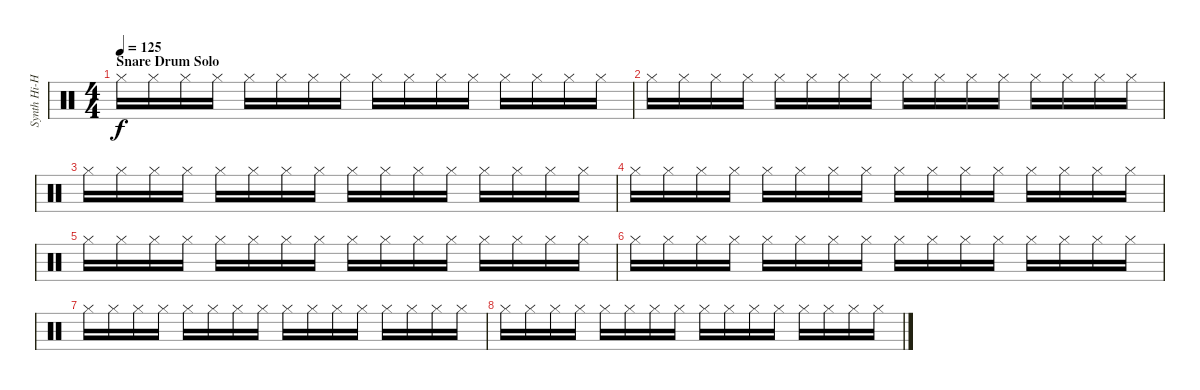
\track ("Synth Hi-Hat (Gillian)" "Synth Hi-H") {instrument percussion}
\staff {score}
\articulation defaults
\ts (4 4)
\section ("" "Snare Drum Solo")
\tempo 125
\clef neutral
\ks c "Hi-Hat (closed)".16{dy f} "Hi-Hat (closed)".16 "Hi-Hat (closed)".16 "Hi-Hat (closed)".16 "Hi-Hat (closed)".16 "Hi-Hat (closed)".16 "Hi-Hat (closed)".16 "Hi-Hat (closed)".16 "Hi-Hat (closed)".16 "Hi-Hat (closed)".16 "Hi-Hat (closed)".16 "Hi-Hat (closed)".16 "Hi-Hat (closed)".16 "Hi-Hat (closed)".16 "Hi-Hat (closed)".16 "Hi-Hat (closed)".16
|
"Hi-Hat (closed)".16 "Hi-Hat (closed)".16 "Hi-Hat (closed)".16 "Hi-Hat (closed)".16 "Hi-Hat (closed)".16 "Hi-Hat (closed)".16 "Hi-Hat (closed)".16 "Hi-Hat (closed)".16 "Hi-Hat (closed)".16 "Hi-Hat (closed)".16 "Hi-Hat (closed)".16 "Hi-Hat (closed)".16 "Hi-Hat (closed)".16 "Hi-Hat (closed)".16 "Hi-Hat (closed)".16 "Hi-Hat (closed)".16 |
"Hi-Hat (closed)".16 "Hi-Hat (closed)".16 "Hi-Hat (closed)".16 "Hi-Hat (closed)".16 "Hi-Hat (closed)".16 "Hi-Hat (closed)".16 "Hi-Hat (closed)".16 "Hi-Hat (closed)".16 "Hi-Hat (closed)".16 "Hi-Hat (closed)".16 "Hi-Hat (closed)".16 "Hi-Hat (closed)".16 "Hi-Hat (closed)".16 "Hi-Hat (closed)".16 "Hi-Hat (closed)".16 "Hi-Hat (closed)".16 |
"Hi-Hat (closed)".16 "Hi-Hat (closed)".16 "Hi-Hat (closed)".16 "Hi-Hat (closed)".16 "Hi-Hat (closed)".16 "Hi-Hat (closed)".16 "Hi-Hat (closed)".16 "Hi-Hat (closed)".16 "Hi-Hat (closed)".16 "Hi-Hat (closed)".16 "Hi-Hat (closed)".16 "Hi-Hat (closed)".16 "Hi-Hat (closed)".16 "Hi-Hat (closed)".16 "Hi-Hat (closed)".16 "Hi-Hat (closed)".16 |
"Hi-Hat (closed)".16 "Hi-Hat (closed)".16 "Hi-Hat (closed)".16 "Hi-Hat (closed)".16 "Hi-Hat (closed)".16 "Hi-Hat (closed)".16 "Hi-Hat (closed)".16 "Hi-Hat (closed)".16 "Hi-Hat (closed)".16 "Hi-Hat (closed)".16 "Hi-Hat (closed)".16 "Hi-Hat (closed)".16 "Hi-Hat (closed)".16 "Hi-Hat (closed)".16 "Hi-Hat (closed)".16 "Hi-Hat (closed)".16 |
"Hi-Hat (closed)".16 "Hi-Hat (closed)".16 "Hi-Hat (closed)".16 "Hi-Hat (closed)".16 "Hi-Hat (closed)".16 "Hi-Hat (closed)".16 "Hi-Hat (closed)".16 "Hi-Hat (closed)".16 "Hi-Hat (closed)".16 "Hi-Hat (closed)".16 "Hi-Hat (closed)".16 "Hi-Hat (closed)".16 "Hi-Hat (closed)".16 "Hi-Hat (closed)".16 "Hi-Hat (closed)".16 "Hi-Hat (closed)".16 |
"Hi-Hat (closed)".16 "Hi-Hat (closed)".16 "Hi-Hat (closed)".16 "Hi-Hat (closed)".16 "Hi-Hat (closed)".16 "Hi-Hat (closed)".16 "Hi-Hat (closed)".16 "Hi-Hat (closed)".16 "Hi-Hat (closed)".16 "Hi-Hat (closed)".16 "Hi-Hat (closed)".16 "Hi-Hat (closed)".16 "Hi-Hat (closed)".16 "Hi-Hat (closed)".16 "Hi-Hat (closed)".16 "Hi-Hat (closed)".16 |
"Hi-Hat (closed)".16 "Hi-Hat (closed)".16 "Hi-Hat (closed)".16 "Hi-Hat (closed)".16 "Hi-Hat (closed)".16 "Hi-Hat (closed)".16 "Hi-Hat (closed)".16 "Hi-Hat (closed)".16 "Hi-Hat (closed)".16 "Hi-Hat (closed)".16 "Hi-Hat (closed)".16 "Hi-Hat (closed)".16 "Hi-Hat (closed)".16 "Hi-Hat (closed)".16 "Hi-Hat (closed)".16 "Hi-Hat (closed)".16
